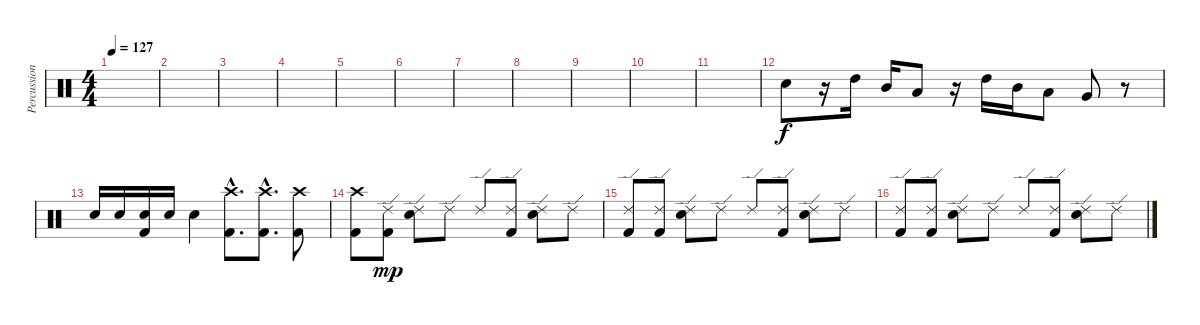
\track ("Percussion" "Percussion") {instrument percussion}
\staff {score}
\articulation defaults
\ts (4 4)
\tempo 127
\clef neutral
\ks c
|
|
|
|
|
|
|
|
|
|
|
"Snare (hit) 2".8 r.16 "High Tom (hit)".16 "Mid Tom (hit)".16 "Low Tom (hit)".8 r.16 "High Tom (hit)".16 "Mid Tom (hit)".16 "Low Tom (hit)".8 "Very Low Tom (hit)".8 r.8 |
"Snare (hit) 2".16 "Snare (hit) 2".16 ("Snare (hit) 2" "Kick (hit) 2").16 "Snare (hit) 2".16 "Snare (hit) 2".4 ("Crash high (hit)"{hac} "Kick (hit) 2"{hac}).8{d} ("Crash high (hit)"{hac} "Kick (hit) 2"{hac}).8{d} ("Crash high (hit)" "Kick (hit) 2").8 |
("Crash high (hit)" "Kick (hit) 2").8 ("Ride (edge) 2" "Kick (hit) 2").8{dy mp} ("Ride (edge) 2" "Snare (hit) 2").8 "Ride (edge) 2".8 "Ride (edge) 2".8 ("Ride (edge) 2" "Kick (hit) 2").8 ("Ride (edge) 2" "Snare (hit) 2").8 "Ride (edge) 2".8 |
("Ride (edge) 2" "Kick (hit) 2").8 ("Ride (edge) 2" "Kick (hit) 2").8 ("Ride (edge) 2" "Snare (hit) 2").8 "Ride (edge) 2".8 "Ride (edge) 2".8 ("Ride (edge) 2" "Kick (hit) 2").8 ("Ride (edge) 2" "Snare (hit) 2").8 "Ride (edge) 2".8 |
("Ride (edge) 2" "Kick (hit) 2").8 ("Ride (edge) 2" "Kick (hit) 2").8 ("Ride (edge) 2" "Snare (hit) 2").8 "Ride (edge) 2".8 "Ride (edge) 2".8 ("Ride (edge) 2" "Kick (hit) 2").8 ("Ride (edge) 2" "Snare (hit) 2").8 "Ride (edge) 2".8
